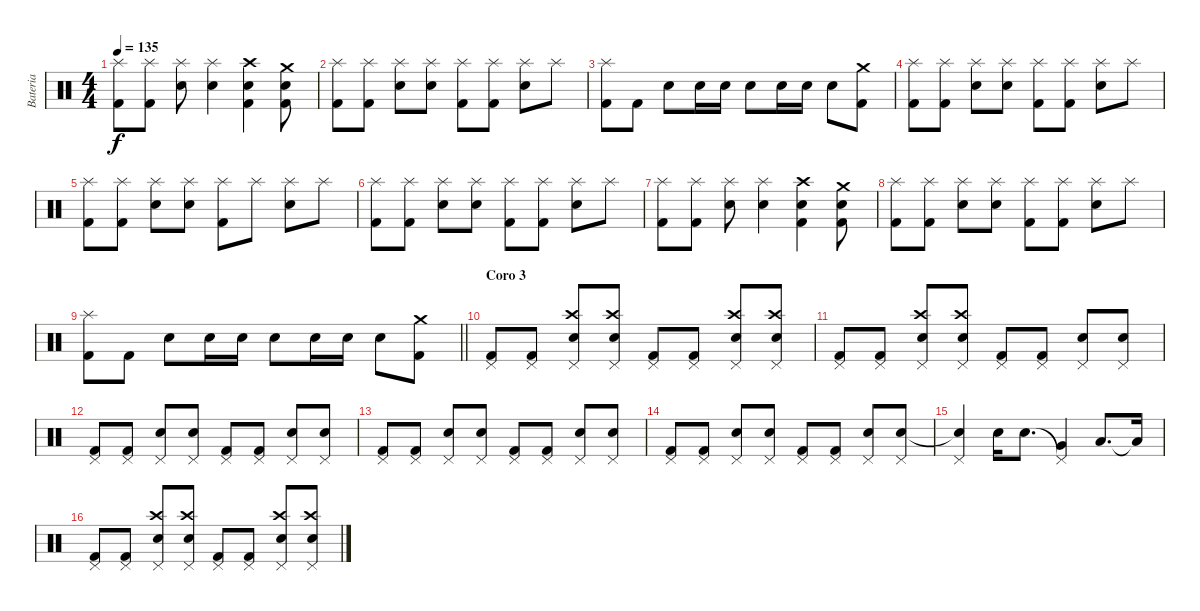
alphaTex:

\track ("Bateria" "Bateria") {instrument percussion}
\staff {score}
\articulation defaults
\ts (4 4)
\tempo 135
\clef neutral
\ks c
("Splash (hit)" "Kick (hit) 2").8{dy f} ("Splash (hit)" "Kick (hit) 2").8 ("Splash (hit)" "Electric Snare (hit)").8 ("Splash (hit)" "Electric Snare (hit)").4 ("Crash high (hit)" "Electric Snare (hit)" "Kick (hit) 2").4 ("Crash medium (hit)" "Electric Snare (hit)" "Kick (hit) 2").8 |
("Splash (hit)" "Kick (hit) 2").8 ("Splash (hit)" "Kick (hit) 2").8 ("Splash (hit)" "Electric Snare (hit)").8 ("Splash (hit)" "Electric Snare (hit)").8 ("Splash (hit)" "Kick (hit) 2").8 ("Splash (hit)" "Kick (hit) 2").8 ("Splash (hit)" "Electric Snare (hit)").8 "Splash (hit)".8 |
("Splash (hit)" "Kick (hit) 2").8 "Kick (hit) 2".8 "Electric Snare (hit)".8 "Electric Snare (hit)".16 "Electric Snare (hit)".16 "Electric Snare (hit)".8 "Electric Snare (hit)".16 "Electric Snare (hit)".16 "Electric Snare (hit)".8 ("Crash medium (hit)" "Kick (hit) 2").8 |
("Splash (hit)" "Kick (hit) 2").8 ("Splash (hit)" "Kick (hit) 2").8 ("Splash (hit)" "Electric Snare (hit)").8 ("Splash (hit)" "Electric Snare (hit)").8 ("Splash (hit)" "Kick (hit) 2").8 ("Splash (hit)" "Kick (hit) 2").8 ("Splash (hit)" "Electric Snare (hit)").8 "Splash (hit)".8 |
("Splash (hit)" "Kick (hit) 2").8 ("Splash (hit)" "Kick (hit) 2").8 ("Splash (hit)" "Electric Snare (hit)").8 ("Splash (hit)" "Electric Snare (hit)").8 ("Splash (hit)" "Kick (hit) 2").8 "Splash (hit)".8 ("Splash (hit)" "Electric Snare (hit)").8 "Splash (hit)".8 |
("Splash (hit)" "Kick (hit) 2").8 ("Splash (hit)" "Kick (hit) 2").8 ("Splash (hit)" "Electric Snare (hit)").8 ("Splash (hit)" "Electric Snare (hit)").8 ("Splash (hit)" "Kick (hit) 2").8 ("Splash (hit)" "Kick (hit) 2").8 ("Splash (hit)" "Electric Snare (hit)").8 "Splash (hit)".8 |
("Splash (hit)" "Kick (hit) 2").8 ("Splash (hit)" "Kick (hit) 2").8 ("Splash (hit)" "Electric Snare (hit)").8 ("Splash (hit)" "Electric Snare (hit)").4 ("Crash high (hit)" "Electric Snare (hit)" "Kick (hit) 2").4 ("Crash medium (hit)" "Electric Snare (hit)" "Kick (hit) 2").8 |
("Splash (hit)" "Kick (hit) 2").8 ("Splash (hit)" "Kick (hit) 2").8 ("Splash (hit)" "Electric Snare (hit)").8 ("Splash (hit)" "Electric Snare (hit)").8 ("Splash (hit)" "Kick (hit) 2").8 ("Splash (hit)" "Kick (hit) 2").8 ("Splash (hit)" "Electric Snare (hit)").8 "Splash (hit)".8 |
\barLineRight lightlight
("Splash (hit)" "Kick (hit) 2").8 "Kick (hit) 2".8 "Electric Snare (hit)".8 "Electric Snare (hit)".16 "Electric Snare (hit)".16 "Electric Snare (hit)".8 "Electric Snare (hit)".16 "Electric Snare (hit)".16 "Electric Snare (hit)".8 ("Crash medium (hit)" "Kick (hit) 2").8 |
\section ("" "Coro 3")
("Pedal Hi-Hat (hit)" "Kick (hit) 2").8 ("Pedal Hi-Hat (hit)" "Kick (hit) 2").8 ("Crash high (hit)" "Pedal Hi-Hat (hit)" "Electric Snare (hit)").8 ("Crash high (hit)" "Pedal Hi-Hat (hit)" "Electric Snare (hit)").8 ("Pedal Hi-Hat (hit)" "Kick (hit) 2").8 ("Pedal Hi-Hat (hit)" "Kick (hit) 2").8 ("Crash high (hit)" "Pedal Hi-Hat (hit)" "Electric Snare (hit)").8 ("Crash high (hit)" "Pedal Hi-Hat (hit)" "Electric Snare (hit)").8 |
("Pedal Hi-Hat (hit)" "Kick (hit) 2").8 ("Pedal Hi-Hat (hit)" "Kick (hit) 2").8 ("Crash high (hit)" "Pedal Hi-Hat (hit)" "Electric Snare (hit)").8 ("Crash high (hit)" "Pedal Hi-Hat (hit)" "Electric Snare (hit)").8 ("Pedal Hi-Hat (hit)" "Kick (hit) 2").8 ("Pedal Hi-Hat (hit)" "Kick (hit) 2").8 ("Pedal Hi-Hat (hit)" "Electric Snare (hit)").8 ("Pedal Hi-Hat (hit)" "Electric Snare (hit)").8 |
("Pedal Hi-Hat (hit)" "Kick (hit) 2").8 ("Pedal Hi-Hat (hit)" "Kick (hit) 2").8 ("Pedal Hi-Hat (hit)" "Electric Snare (hit)").8 ("Pedal Hi-Hat (hit)" "Electric Snare (hit)").8 ("Pedal Hi-Hat (hit)" "Kick (hit) 2").8 ("Pedal Hi-Hat (hit)" "Kick (hit) 2").8 ("Pedal Hi-Hat (hit)" "Electric Snare (hit)").8 ("Pedal Hi-Hat (hit)" "Electric Snare (hit)").8 |
("Pedal Hi-Hat (hit)" "Kick (hit) 2").8 ("Pedal Hi-Hat (hit)" "Kick (hit) 2").8 ("Pedal Hi-Hat (hit)" "Electric Snare (hit)").8 ("Pedal Hi-Hat (hit)" "Electric Snare (hit)").8 ("Pedal Hi-Hat (hit)" "Kick (hit) 2").8 ("Pedal Hi-Hat (hit)" "Kick (hit) 2").8 ("Pedal Hi-Hat (hit)" "Electric Snare (hit)").8 ("Pedal Hi-Hat (hit)" "Electric Snare (hit)").8 |
("Pedal Hi-Hat (hit)" "Kick (hit) 2").8 ("Pedal Hi-Hat (hit)" "Kick (hit) 2").8 ("Pedal Hi-Hat (hit)" "Electric Snare (hit)").8 ("Pedal Hi-Hat (hit)" "Electric Snare (hit)").8 ("Pedal Hi-Hat (hit)" "Kick (hit) 2").8 ("Pedal Hi-Hat (hit)" "Kick (hit) 2").8 ("Pedal Hi-Hat (hit)" "Electric Snare (hit)").8 ("Pedal Hi-Hat (hit)" "Electric Snare (hit)").8 |
("Pedal Hi-Hat (hit)" "Electric Snare (hit)"{t}).4 "Electric Snare (hit)".16 "Electric Snare (hit)".8{d} ("Pedal Hi-Hat (hit)"{t} "Very Low Tom (hit)").4 "Low Floor Tom (hit)".8{d} "Low Floor Tom (hit)"{t}.16 |
("Pedal Hi-Hat (hit)" "Kick (hit) 2").8 ("Pedal Hi-Hat (hit)" "Kick (hit) 2").8 ("Crash high (hit)" "Pedal Hi-Hat (hit)" "Electric Snare (hit)").8 ("Crash high (hit)" "Pedal Hi-Hat (hit)" "Electric Snare (hit)").8 ("Pedal Hi-Hat (hit)" "Kick (hit) 2").8 ("Pedal Hi-Hat (hit)" "Kick (hit) 2").8 ("Crash high (hit)" "Pedal Hi-Hat (hit)" "Electric Snare (hit)").8 ("Crash high (hit)" "Pedal Hi-Hat (hit)" "Electric Snare (hit)").8
